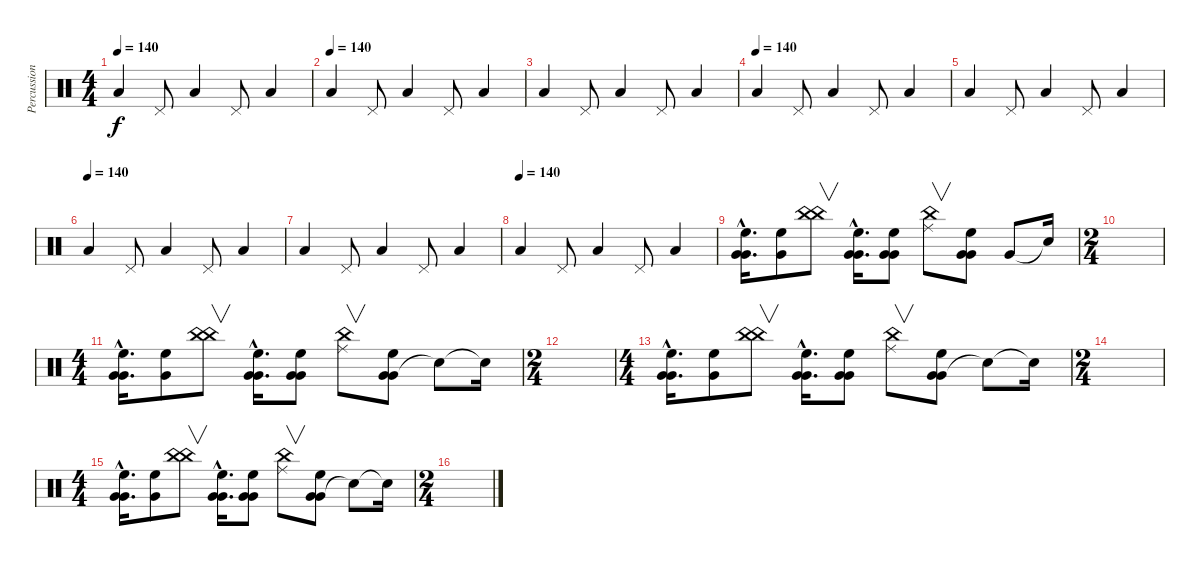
\track ("Percussion" "Percussion") {instrument percussion}
\staff {score}
\articulation defaults
\ts (4 4)
\tempo 140
\clef neutral
\ks c "Low Tom (hit)".4{dy f} "Pedal Hi-Hat (hit)".8 "Low Tom (hit)".4 "Pedal Hi-Hat (hit)".8 "Low Tom (hit)".4
|
\tempo 160
\tempo (140)
"Low Tom (hit)".4 "Pedal Hi-Hat (hit)".8 "Low Tom (hit)".4 "Pedal Hi-Hat (hit)".8 "Low Tom (hit)".4 |
"Low Tom (hit)".4 "Pedal Hi-Hat (hit)".8 "Low Tom (hit)".4 "Pedal Hi-Hat (hit)".8 "Low Tom (hit)".4 |
\tempo 160
\tempo (140)
"Low Tom (hit)".4 "Pedal Hi-Hat (hit)".8 "Low Tom (hit)".4 "Pedal Hi-Hat (hit)".8 "Low Tom (hit)".4 |
"Low Tom (hit)".4 "Pedal Hi-Hat (hit)".8 "Low Tom (hit)".4 "Pedal Hi-Hat (hit)".8 "Low Tom (hit)".4 |
\tempo 160
\tempo (140)
"Low Tom (hit)".4 "Pedal Hi-Hat (hit)".8 "Low Tom (hit)".4 "Pedal Hi-Hat (hit)".8 "Low Tom (hit)".4 |
"Low Tom (hit)".4 "Pedal Hi-Hat (hit)".8 "Low Tom (hit)".4 "Pedal Hi-Hat (hit)".8 "Low Tom (hit)".4 |
\tempo 160
\tempo (140)
"Low Tom (hit)".4 "Pedal Hi-Hat (hit)".8 "Low Tom (hit)".4 "Pedal Hi-Hat (hit)".8 "Low Tom (hit)".4 |
("Very Low Tom (hit)" "Very Low Tom (hit)"{hac} "High Floor Tom (hit)"{hac}).16{d} ("Very Low Tom (hit)" "High Floor Tom (hit)").8 ("China (hit)" "China (hit)").8{v} ("Very Low Tom (hit)" "Very Low Tom (hit)"{hac} "High Floor Tom (hit)"{hac}).16{d} ("Very Low Tom (hit)" "Very Low Tom (hit)" "High Floor Tom (hit)").8 ("Ride (middle)" "China (hit)").8{v} ("Very Low Tom (hit)" "Very Low Tom (hit)" "High Floor Tom (hit)").8 "Very Low Tom (hit)".8 "Snare (hit)"{t}.16 |
\ts (2 4)
|
\ts (4 4)
("Very Low Tom (hit)" "Very Low Tom (hit)"{hac} "High Floor Tom (hit)"{hac}).16{d} ("Very Low Tom (hit)" "High Floor Tom (hit)").8 ("China (hit)" "China (hit)").8{v} ("Very Low Tom (hit)" "Very Low Tom (hit)"{hac} "High Floor Tom (hit)"{hac}).16{d} ("Very Low Tom (hit)" "Very Low Tom (hit)" "High Floor Tom (hit)").8 ("Ride (middle)" "China (hit)").8{v} ("Very Low Tom (hit)" "Very Low Tom (hit)" "High Floor Tom (hit)").8 "Snare (hit)"{t}.8 "Snare (hit)"{t}.16 |
\ts (2 4)
|
\ts (4 4)
("Very Low Tom (hit)" "Very Low Tom (hit)"{hac} "High Floor Tom (hit)"{hac}).16{d} ("Very Low Tom (hit)" "High Floor Tom (hit)").8 ("China (hit)" "China (hit)").8{v} ("Very Low Tom (hit)" "Very Low Tom (hit)"{hac} "High Floor Tom (hit)"{hac}).16{d} ("Very Low Tom (hit)" "Very Low Tom (hit)" "High Floor Tom (hit)").8 ("Ride (middle)" "China (hit)").8{v} ("Very Low Tom (hit)" "Very Low Tom (hit)" "High Floor Tom (hit)").8 "Snare (hit)"{t}.8 "Snare (hit)"{t}.16 |
\ts (2 4)
|
\ts (4 4)
("Very Low Tom (hit)" "Very Low Tom (hit)"{hac} "High Floor Tom (hit)"{hac}).16{d} ("Very Low Tom (hit)" "High Floor Tom (hit)").8 ("China (hit)" "China (hit)").8{v} ("Very Low Tom (hit)" "Very Low Tom (hit)"{hac} "High Floor Tom (hit)"{hac}).16{d} ("Very Low Tom (hit)" "Very Low Tom (hit)" "High Floor Tom (hit)").8 ("Ride (middle)" "China (hit)").8{v} ("Very Low Tom (hit)" "Very Low Tom (hit)" "High Floor Tom (hit)").8 "Snare (hit)"{t}.8 "Snare (hit)"{t}.16 |
\ts (2 4)
